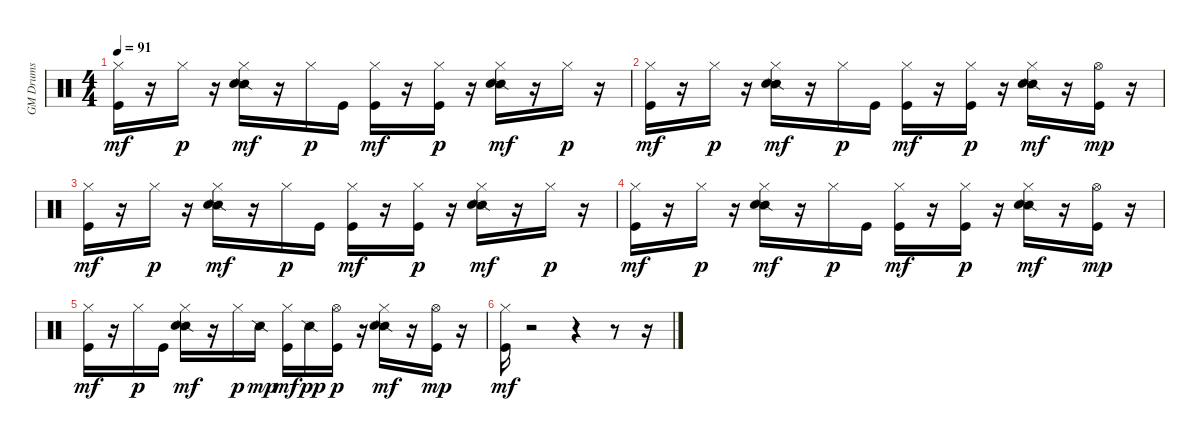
\track ("GM Drums" "GM Drums") {instrument percussion}
\staff {score}
\articulation defaults
\ts (4 4)
\tempo 91
\clef neutral
\ks c
("Kick (hit)" "Hi-Hat (closed)").16{dy mf} r.16 "Hi-Hat (closed)".16{dy p} r.16 ("Snare (side stick) 2" "Electric Snare (hit)" "Hi-Hat (closed)").16{dy mf} r.16 "Hi-Hat (closed)".16{dy p} "Kick (hit)".16 ("Kick (hit)" "Hi-Hat (closed)").16{dy mf} r.16 ("Kick (hit)" "Hi-Hat (closed)").16{dy p} r.16 ("Snare (side stick) 2" "Electric Snare (hit)" "Hi-Hat (closed)").16{dy mf} r.16 "Hi-Hat (closed)".16{dy p} r.16 |
("Kick (hit)" "Hi-Hat (closed)").16{dy mf} r.16 "Hi-Hat (closed)".16{dy p} r.16 ("Snare (side stick) 2" "Electric Snare (hit)" "Hi-Hat (closed)").16{dy mf} r.16 "Hi-Hat (closed)".16{dy p} "Kick (hit)".16 ("Kick (hit)" "Hi-Hat (closed)").16{dy mf} r.16 ("Kick (hit)" "Hi-Hat (closed)").16{dy p} r.16 ("Snare (side stick) 2" "Electric Snare (hit)" "Hi-Hat (closed)").16{dy mf} r.16 ("Kick (hit)" "Hi-Hat (open)").16{dy mp} r.16 |
("Kick (hit)" "Hi-Hat (closed)").16{dy mf} r.16 "Hi-Hat (closed)".16{dy p} r.16 ("Snare (side stick) 2" "Electric Snare (hit)" "Hi-Hat (closed)").16{dy mf} r.16 "Hi-Hat (closed)".16{dy p} "Kick (hit)".16 ("Kick (hit)" "Hi-Hat (closed)").16{dy mf} r.16 ("Kick (hit)" "Hi-Hat (closed)").16{dy p} r.16 ("Snare (side stick) 2" "Electric Snare (hit)" "Hi-Hat (closed)").16{dy mf} r.16 "Hi-Hat (closed)".16{dy p} r.16 |
("Kick (hit)" "Hi-Hat (closed)").16{dy mf} r.16 "Hi-Hat (closed)".16{dy p} r.16 ("Snare (side stick) 2" "Electric Snare (hit)" "Hi-Hat (closed)").16{dy mf} r.16 "Hi-Hat (closed)".16{dy p} "Kick (hit)".16 ("Kick (hit)" "Hi-Hat (closed)").16{dy mf} r.16 ("Kick (hit)" "Hi-Hat (closed)").16{dy p} r.16 ("Snare (side stick) 2" "Electric Snare (hit)" "Hi-Hat (closed)").16{dy mf} r.16 ("Kick (hit)" "Hi-Hat (open)").16{dy mp} r.16 |
("Kick (hit)" "Hi-Hat (closed)").16{dy mf} r.16 "Hi-Hat (closed)".16{dy p} "Kick (hit)".16 ("Snare (side stick) 2" "Electric Snare (hit)" "Hi-Hat (closed)").16{dy mf} r.16 "Hi-Hat (closed)".16{dy p} "Snare (side stick) 2".16{dy mp} ("Kick (hit)" "Hi-Hat (closed)").16{dy mf} "Snare (side stick) 2".16{dy pp} ("Kick (hit)" "Hi-Hat (open)").16{dy p} r.16 ("Snare (side stick) 2" "Electric Snare (hit)" "Hi-Hat (closed)").16{dy mf} r.16 ("Kick (hit)" "Hi-Hat (open)").16{dy mp} r.16 |
("Kick (hit)" "Hi-Hat (closed)").16{dy mf} r.2 r.4 r.8 r.16
